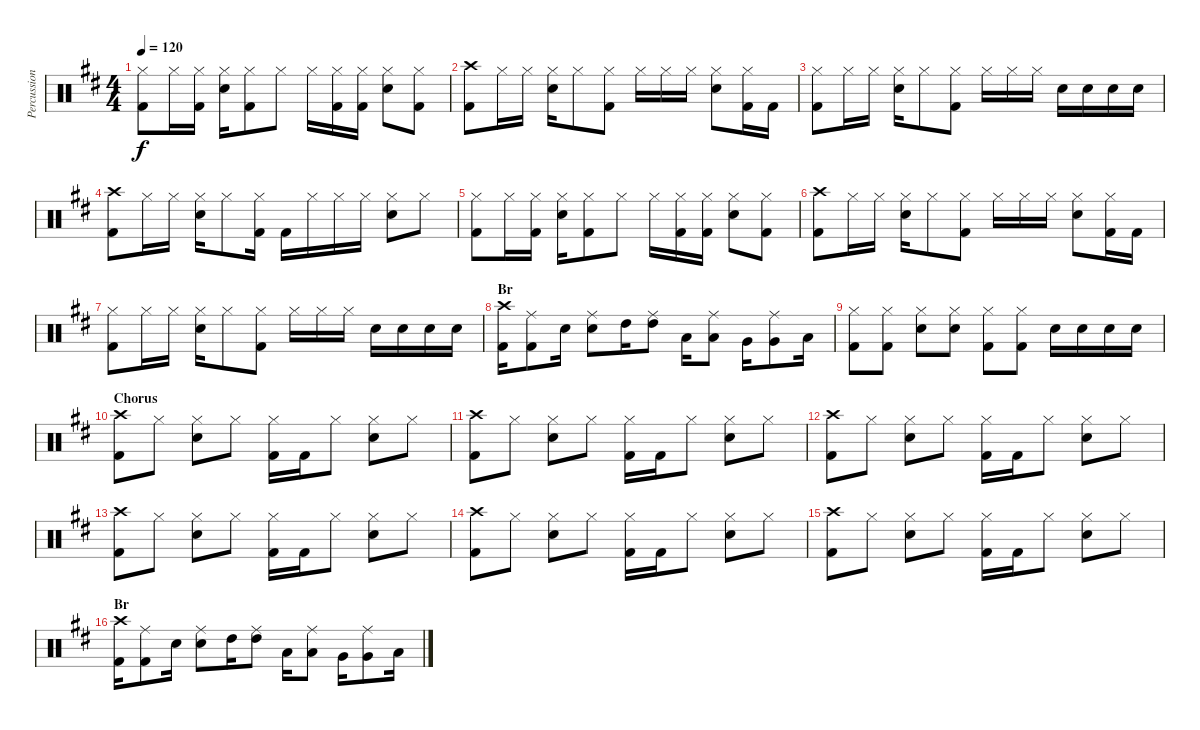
\track ("Percussion" "Percussion") {instrument percussion}
\staff {score}
\articulation defaults
\ts (4 4)
\tempo 120
\clef neutral
\ks d
("Hi-Hat (closed)" "Kick (hit) 2").8{dy f} "Hi-Hat (closed)".16 ("Hi-Hat (closed)" "Kick (hit) 2").16 ("Hi-Hat (closed)" "Snare (hit) 2").16 ("Hi-Hat (closed)" "Kick (hit) 2").8 "Hi-Hat (closed)".8 "Hi-Hat (closed)".16 ("Hi-Hat (closed)" "Kick (hit) 2").16 ("Hi-Hat (closed)" "Kick (hit) 2").16 ("Hi-Hat (closed)" "Snare (hit) 2").8 ("Hi-Hat (closed)" "Kick (hit) 2").8 |
("Crash high (hit)" "Kick (hit) 2").8 "Hi-Hat (closed)".16 "Hi-Hat (closed)".16 ("Hi-Hat (closed)" "Snare (hit) 2").16 "Hi-Hat (closed)".8 ("Hi-Hat (closed)" "Kick (hit) 2").8 "Hi-Hat (closed)".16 "Hi-Hat (closed)".16 "Hi-Hat (closed)".16 ("Hi-Hat (closed)" "Snare (hit) 2").8 ("Hi-Hat (closed)" "Kick (hit) 2").16 "Kick (hit) 2".16 |
("Hi-Hat (closed)" "Kick (hit) 2").8 "Hi-Hat (closed)".16 "Hi-Hat (closed)".16 ("Hi-Hat (closed)" "Snare (hit) 2").16 "Hi-Hat (closed)".8 ("Hi-Hat (closed)" "Kick (hit) 2").8 "Hi-Hat (closed)".16 "Hi-Hat (closed)".16 "Hi-Hat (closed)".16 "Snare (hit) 2".16 "Snare (hit) 2".16 "Snare (hit) 2".16 "Snare (hit) 2".16 |
("Crash high (hit)" "Kick (hit) 2").8 "Hi-Hat (closed)".16 "Hi-Hat (closed)".16 ("Hi-Hat (closed)" "Snare (hit) 2").16 "Hi-Hat (closed)".8 ("Hi-Hat (closed)" "Kick (hit) 2").16 "Kick (hit) 2".16 "Hi-Hat (closed)".16 "Hi-Hat (closed)".16 "Hi-Hat (closed)".16 ("Hi-Hat (closed)" "Snare (hit) 2").8 "Hi-Hat (closed)".8 |
("Hi-Hat (closed)" "Kick (hit) 2").8 "Hi-Hat (closed)".16 ("Hi-Hat (closed)" "Kick (hit) 2").16 ("Hi-Hat (closed)" "Snare (hit) 2").16 ("Hi-Hat (closed)" "Kick (hit) 2").8 "Hi-Hat (closed)".8 "Hi-Hat (closed)".16 ("Hi-Hat (closed)" "Kick (hit) 2").16 ("Hi-Hat (closed)" "Kick (hit) 2").16 ("Hi-Hat (closed)" "Snare (hit) 2").8 ("Hi-Hat (closed)" "Kick (hit) 2").8 |
("Crash high (hit)" "Kick (hit) 2").8 "Hi-Hat (closed)".16 "Hi-Hat (closed)".16 ("Hi-Hat (closed)" "Snare (hit) 2").16 "Hi-Hat (closed)".8 ("Hi-Hat (closed)" "Kick (hit) 2").8 "Hi-Hat (closed)".16 "Hi-Hat (closed)".16 "Hi-Hat (closed)".16 ("Hi-Hat (closed)" "Snare (hit) 2").8 ("Hi-Hat (closed)" "Kick (hit) 2").16 "Kick (hit) 2".16 |
("Hi-Hat (closed)" "Kick (hit) 2").8 "Hi-Hat (closed)".16 "Hi-Hat (closed)".16 ("Hi-Hat (closed)" "Snare (hit) 2").16 "Hi-Hat (closed)".8 ("Hi-Hat (closed)" "Kick (hit) 2").8 "Hi-Hat (closed)".16 "Hi-Hat (closed)".16 "Hi-Hat (closed)".16 "Snare (hit) 2".16 "Snare (hit) 2".16 "Snare (hit) 2".16 "Snare (hit) 2".16 |
\section ("" "Br")
("Crash high (hit)" "Kick (hit) 2").16 ("Ride (middle)" "Kick (hit) 2").8 "Snare (hit) 2".16 ("Ride (middle)" "Snare (hit) 2").8 "High Tom (hit)".16 ("Ride (middle)" "High Tom (hit)").8 "Low Tom (hit)".16 ("Ride (middle)" "Low Tom (hit)").8 "Very Low Tom (hit)".16 ("Ride (middle)" "Very Low Tom (hit)").8 "Low Floor Tom (hit)".16 |
("Hi-Hat (closed)" "Kick (hit) 2").8 ("Hi-Hat (closed)" "Kick (hit) 2").8 ("Hi-Hat (closed)" "Snare (hit) 2").8 ("Hi-Hat (closed)" "Snare (hit) 2").8 ("Hi-Hat (closed)" "Kick (hit) 2").8 ("Hi-Hat (closed)" "Kick (hit) 2").8 "Snare (hit) 2".16 "Snare (hit) 2".16 "Snare (hit) 2".16 "Snare (hit) 2".16 |
\section ("" "Chorus")
("Crash high (hit)" "Kick (hit) 2").8 "Hi-Hat (closed)".8 ("Hi-Hat (closed)" "Snare (hit) 2").8 "Hi-Hat (closed)".8 ("Hi-Hat (closed)" "Kick (hit) 2").16 "Kick (hit) 2".16 "Hi-Hat (closed)".8 ("Hi-Hat (closed)" "Snare (hit) 2").8 "Hi-Hat (closed)".8 |
("Crash high (hit)" "Kick (hit) 2").8 "Hi-Hat (closed)".8 ("Hi-Hat (closed)" "Snare (hit) 2").8 "Hi-Hat (closed)".8 ("Hi-Hat (closed)" "Kick (hit) 2").16 "Kick (hit) 2".16 "Hi-Hat (closed)".8 ("Hi-Hat (closed)" "Snare (hit) 2").8 "Hi-Hat (closed)".8 |
("Crash high (hit)" "Kick (hit) 2").8 "Hi-Hat (closed)".8 ("Hi-Hat (closed)" "Snare (hit) 2").8 "Hi-Hat (closed)".8 ("Hi-Hat (closed)" "Kick (hit) 2").16 "Kick (hit) 2".16 "Hi-Hat (closed)".8 ("Hi-Hat (closed)" "Snare (hit) 2").8 "Hi-Hat (closed)".8 |
("Crash high (hit)" "Kick (hit) 2").8 "Hi-Hat (closed)".8 ("Hi-Hat (closed)" "Snare (hit) 2").8 "Hi-Hat (closed)".8 ("Hi-Hat (closed)" "Kick (hit) 2").16 "Kick (hit) 2".16 "Hi-Hat (closed)".8 ("Hi-Hat (closed)" "Snare (hit) 2").8 "Hi-Hat (closed)".8 |
("Crash high (hit)" "Kick (hit) 2").8 "Hi-Hat (closed)".8 ("Hi-Hat (closed)" "Snare (hit) 2").8 "Hi-Hat (closed)".8 ("Hi-Hat (closed)" "Kick (hit) 2").16 "Kick (hit) 2".16 "Hi-Hat (closed)".8 ("Hi-Hat (closed)" "Snare (hit) 2").8 "Hi-Hat (closed)".8 |
("Crash high (hit)" "Kick (hit) 2").8 "Hi-Hat (closed)".8 ("Hi-Hat (closed)" "Snare (hit) 2").8 "Hi-Hat (closed)".8 ("Hi-Hat (closed)" "Kick (hit) 2").16 "Kick (hit) 2".16 "Hi-Hat (closed)".8 ("Hi-Hat (closed)" "Snare (hit) 2").8 "Hi-Hat (closed)".8 |
\section ("" "Br")
("Crash high (hit)" "Kick (hit) 2").16 ("Ride (middle)" "Kick (hit) 2").8 "Snare (hit) 2".16 ("Ride (middle)" "Snare (hit) 2").8 "High Tom (hit)".16 ("Ride (middle)" "High Tom (hit)").8 "Low Tom (hit)".16 ("Ride (middle)" "Low Tom (hit)").8 "Very Low Tom (hit)".16 ("Ride (middle)" "Very Low Tom (hit)").8 "Low Floor Tom (hit)".16
